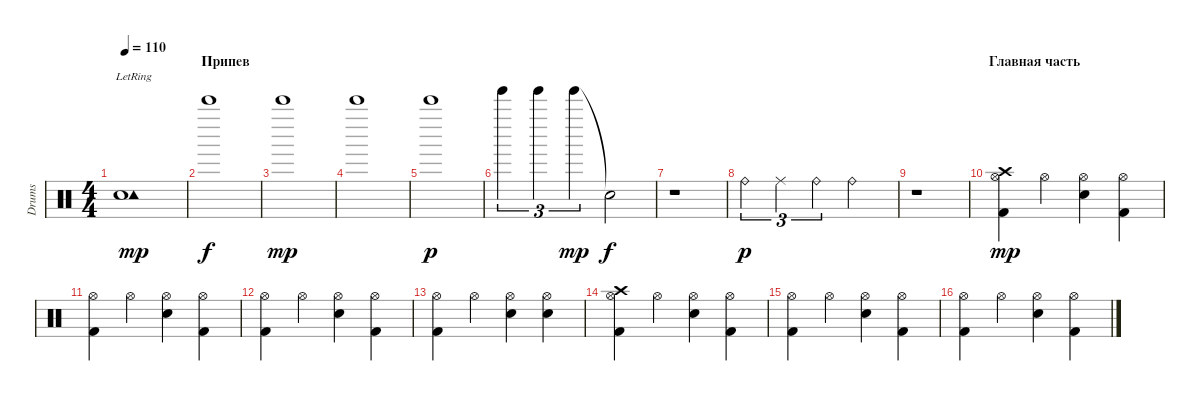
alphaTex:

\track ("Drums" "Drums") {instrument percussion}
\staff {score}
\articulation defaults
\ts (4 4)
\tempo 110
\clef neutral
\ks c
("Tambourine (hit)"{lr} "Snare (hit)"{t}).1{dy mp} |
\section ("" "Припев")
"Bell Tree (hit)".1{dy f} |
"Bell Tree (hit)".1{dy mp} |
"Bell Tree (hit)".1 |
"Bell Tree (hit)".1{dy p} |
"Tinkle Bell (hit)".4{tu (3 2)} "Tinkle Bell (hit)".4{tu (3 2)} "Tinkle Bell (hit)".4{tu (3 2) dy mp} "Snare (hit)"{t}.2{dy f} |
r.1 |
"Ride (bell)".4{tu (3 2) dy p} "Ride (middle)".4{tu (3 2)} "Ride (bell)".4{tu (3 2)} "Ride (bell)".2 |
r.1 |
\section ("" "Главная часть")
("Crash high (hit)" "Kick (hit) 2" "Hi-Hat (open)").4{dy mp} "Hi-Hat (open)".4 ("Snare (hit) 2" "Hi-Hat (open)").4 ("Kick (hit) 2" "Hi-Hat (open)").4 |
("Kick (hit) 2" "Hi-Hat (open)").4 "Hi-Hat (open)".4 ("Snare (hit) 2" "Hi-Hat (open)").4 ("Kick (hit) 2" "Hi-Hat (open)").4 |
("Kick (hit) 2" "Hi-Hat (open)").4 "Hi-Hat (open)".4 ("Snare (hit) 2" "Hi-Hat (open)").4 ("Kick (hit) 2" "Hi-Hat (open)").4 |
("Kick (hit) 2" "Hi-Hat (open)").4 "Hi-Hat (open)".4 ("Snare (hit) 2" "Hi-Hat (open)").4 ("Snare (hit) 2" "Hi-Hat (open)").4 |
("Crash high (hit)" "Kick (hit) 2" "Hi-Hat (open)").4 "Hi-Hat (open)".4 ("Snare (hit) 2" "Hi-Hat (open)").4 ("Kick (hit) 2" "Hi-Hat (open)").4 |
("Kick (hit) 2" "Hi-Hat (open)").4 "Hi-Hat (open)".4 ("Snare (hit) 2" "Hi-Hat (open)").4 ("Kick (hit) 2" "Hi-Hat (open)").4 |
("Kick (hit) 2" "Hi-Hat (open)").4 "Hi-Hat (open)".4 ("Snare (hit) 2" "Hi-Hat (open)").4 ("Kick (hit) 2" "Hi-Hat (open)").4
